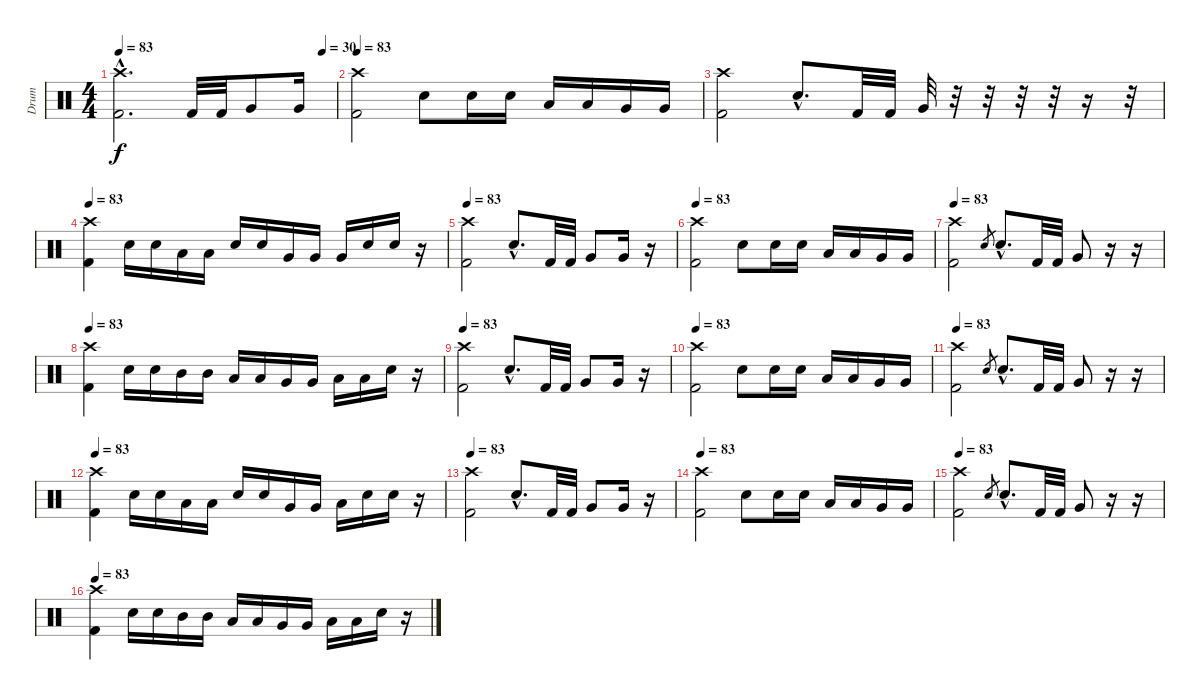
\track ("Drum" "Drum") {instrument percussion}
\staff {score}
\articulation defaults
\ts (4 4)
\tempo 83
\tempo (30 0.9375)
\clef neutral
\ks c
("Crash high (hit)"{hac} "Kick (hit) 2"{hac}).2{d dy f} "Kick (hit) 2".32 "Kick (hit) 2".32 "Very Low Tom (hit)".8 "Very Low Tom (hit)".16 |
\tempo 83
("Crash high (hit)" "Kick (hit) 2").2 "Electric Snare (hit)".8 "Electric Snare (hit)".16 "Electric Snare (hit)".16 "Low Tom (hit)".16 "Low Tom (hit)".16 "Very Low Tom (hit)".16 "Very Low Tom (hit)".16 |
("Crash high (hit)" "Kick (hit) 2").2 "Electric Snare (hit)"{hac}.8{d} "Kick (hit) 2".32 "Kick (hit) 2".32 "Very Low Tom (hit)".32 r.32 r.32 r.32 r.32 r.16 r.32 |
\tempo 83
("Crash high (hit)" "Kick (hit) 2").4 "Electric Snare (hit)".16 "Electric Snare (hit)".16 "Low Tom (hit)".16 "Low Tom (hit)".16 "Electric Snare (hit)".16 "Electric Snare (hit)".16 "Very Low Tom (hit)".16 "Very Low Tom (hit)".16 "Very Low Tom (hit)".16 "Electric Snare (hit)".16 "Electric Snare (hit)".16 r.16 |
\tempo 83
("Crash high (hit)" "Kick (hit) 2").2 "Electric Snare (hit)"{hac}.8{d} "Kick (hit) 2".32 "Kick (hit) 2".32 "Very Low Tom (hit)".8 "Very Low Tom (hit)".16 r.16 |
\tempo 83
("Crash high (hit)" "Kick (hit) 2").2 "Electric Snare (hit)".8 "Electric Snare (hit)".16 "Electric Snare (hit)".16 "Low Tom (hit)".16 "Low Tom (hit)".16 "Very Low Tom (hit)".16 "Very Low Tom (hit)".16 |
\tempo 83
("Crash high (hit)" "Kick (hit) 2").2 "Electric Snare (hit)".8{gr} "Electric Snare (hit)"{hac}.8{d} "Kick (hit) 2".32 "Kick (hit) 2".32 "Very Low Tom (hit)".8 r.16 r.16 |
\tempo 83
("Crash high (hit)" "Kick (hit) 2").4 "Electric Snare (hit)".16 "Electric Snare (hit)".16 "Mid Tom (hit)".16 "Mid Tom (hit)".16 "Low Tom (hit)".16 "Low Tom (hit)".16 "Very Low Tom (hit)".16 "Very Low Tom (hit)".16 "Low Floor Tom (hit)".16 "Low Floor Tom (hit)".16 "Electric Snare (hit)".16 r.16 |
\tempo 83
("Crash high (hit)" "Kick (hit) 2").2 "Electric Snare (hit)"{hac}.8{d} "Kick (hit) 2".32 "Kick (hit) 2".32 "Very Low Tom (hit)".8 "Very Low Tom (hit)".16 r.16 |
\tempo 83
("Crash high (hit)" "Kick (hit) 2").2 "Electric Snare (hit)".8 "Electric Snare (hit)".16 "Electric Snare (hit)".16 "Low Tom (hit)".16 "Low Tom (hit)".16 "Very Low Tom (hit)".16 "Very Low Tom (hit)".16 |
\tempo 83
("Crash high (hit)" "Kick (hit) 2").2 "Electric Snare (hit)".8{gr} "Electric Snare (hit)"{hac}.8{d} "Kick (hit) 2".32 "Kick (hit) 2".32 "Very Low Tom (hit)".8 r.16 r.16 |
\tempo 83
("Crash high (hit)" "Kick (hit) 2").4 "Electric Snare (hit)".16 "Electric Snare (hit)".16 "Low Tom (hit)".16 "Low Tom (hit)".16 "Electric Snare (hit)".16 "Electric Snare (hit)".16 "Very Low Tom (hit)".16 "Very Low Tom (hit)".16 "Low Floor Tom (hit)".16 "Electric Snare (hit)".16 "Electric Snare (hit)".16 r.16 |
\tempo 83
("Crash high (hit)" "Kick (hit) 2").2 "Electric Snare (hit)"{hac}.8{d} "Kick (hit) 2".32 "Kick (hit) 2".32 "Very Low Tom (hit)".8 "Very Low Tom (hit)".16 r.16 |
\tempo 83
("Crash high (hit)" "Kick (hit) 2").2 "Electric Snare (hit)".8 "Electric Snare (hit)".16 "Electric Snare (hit)".16 "Low Tom (hit)".16 "Low Tom (hit)".16 "Very Low Tom (hit)".16 "Very Low Tom (hit)".16 |
\tempo 83
("Crash high (hit)" "Kick (hit) 2").2 "Electric Snare (hit)".8{gr} "Electric Snare (hit)"{hac}.8{d} "Kick (hit) 2".32 "Kick (hit) 2".32 "Very Low Tom (hit)".8 r.16 r.16 |
\tempo 83
("Crash high (hit)" "Kick (hit) 2").4 "Electric Snare (hit)".16 "Electric Snare (hit)".16 "Mid Tom (hit)".16 "Mid Tom (hit)".16 "Low Tom (hit)".16 "Low Tom (hit)".16 "Very Low Tom (hit)".16 "Very Low Tom (hit)".16 "Low Floor Tom (hit)".16 "Low Floor Tom (hit)".16 "Electric Snare (hit)".16 r.16
